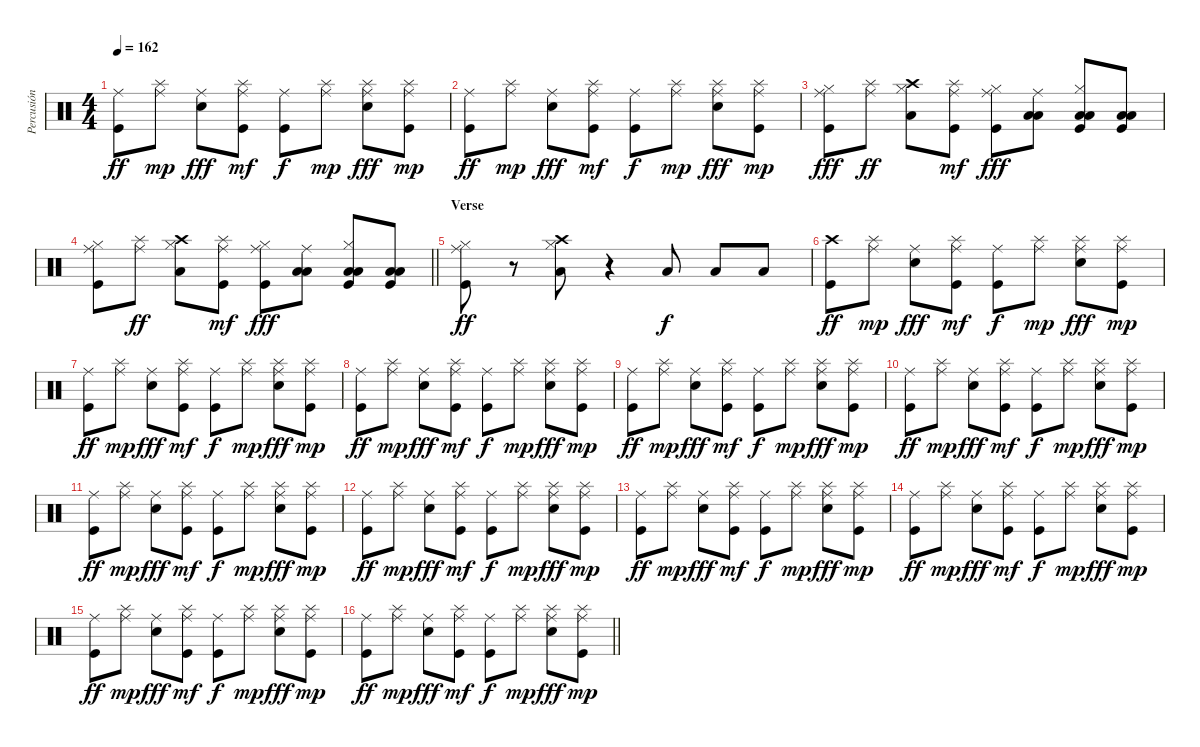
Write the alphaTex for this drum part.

\track ("Percusión" "Percusión") {instrument percussion}
\staff {score}
\articulation defaults
\ts (4 4)
\tempo 162
\clef neutral
\ks c
("Ride (middle)" "Kick (hit)").8{dy ff} ("Ride (middle)" "Splash (hit)").8{dy mp} ("Ride (middle)" "Snare (hit) 2").8{dy fff} ("Ride (middle)" "Splash (hit)" "Kick (hit)").8{dy mf} ("Ride (middle)" "Kick (hit)").8{dy f} ("Ride (middle)" "Splash (hit)").8{dy mp} ("Ride (middle)" "Splash (hit)" "Snare (hit) 2").8{dy fff} ("Ride (middle)" "Splash (hit)" "Kick (hit)").8{dy mp} |
("Ride (middle)" "Kick (hit)").8{dy ff} ("Ride (middle)" "Splash (hit)").8{dy mp} ("Ride (middle)" "Snare (hit) 2").8{dy fff} ("Ride (middle)" "Splash (hit)" "Kick (hit)").8{dy mf} ("Ride (middle)" "Kick (hit)").8{dy f} ("Ride (middle)" "Splash (hit)").8{dy mp} ("Ride (middle)" "Splash (hit)" "Snare (hit) 2").8{dy fff} ("Ride (middle)" "Splash (hit)" "Kick (hit)").8{dy mp} |
("Kick (hit)" "Hi-Hat (closed)" "Ride (middle)").8{dy fff} ("Splash (hit)" "Ride (middle)").8{dy ff} ("Hi-Hat (closed)" "Crash high (hit)" "Low Tom (hit)").8 ("Kick (hit)" "Splash (hit)" "Ride (middle)").8{dy mf} ("Kick (hit)" "Hi-Hat (closed)" "Ride (middle)").8{dy fff} ("Low Tom (hit)" "Low Tom (hit)" "Ride (middle)").8 ("Low Tom (hit)" "Kick (hit)" "Hi-Hat (closed)" "Low Tom (hit)").8 ("Low Tom (hit)" "Kick (hit)" "Low Tom (hit)").8 |
\barLineRight lightlight
("Kick (hit)" "Hi-Hat (closed)" "Ride (middle)").8 ("Splash (hit)" "Ride (middle)").8{dy ff} ("Hi-Hat (closed)" "Crash high (hit)" "Low Tom (hit)").8 ("Kick (hit)" "Splash (hit)" "Ride (middle)").8{dy mf} ("Kick (hit)" "Hi-Hat (closed)" "Ride (middle)").8{dy fff} ("Low Tom (hit)" "Low Tom (hit)" "Ride (middle)").8 ("Low Tom (hit)" "Kick (hit)" "Hi-Hat (closed)" "Low Tom (hit)").8 ("Low Tom (hit)" "Kick (hit)" "Low Tom (hit)").8 |
\section ("" "Verse")
("Hi-Hat (closed)" "Ride (middle)" "Kick (hit)").8{dy ff} r.8 ("Hi-Hat (closed)" "Crash high (hit)" "Low Tom (hit)").8 r.4 "Low Tom (hit)".8{dy f} "Low Tom (hit)".8 "Low Tom (hit)".8 |
("Crash high (hit)" "Kick (hit)").8{dy ff} ("Ride (middle)" "Splash (hit)").8{dy mp} ("Ride (middle)" "Snare (hit) 2").8{dy fff} ("Ride (middle)" "Splash (hit)" "Kick (hit)").8{dy mf} ("Ride (middle)" "Kick (hit)").8{dy f} ("Ride (middle)" "Splash (hit)").8{dy mp} ("Ride (middle)" "Splash (hit)" "Snare (hit) 2").8{dy fff} ("Ride (middle)" "Splash (hit)" "Kick (hit)").8{dy mp} |
("Ride (middle)" "Kick (hit)").8{dy ff} ("Ride (middle)" "Splash (hit)").8{dy mp} ("Ride (middle)" "Snare (hit) 2").8{dy fff} ("Ride (middle)" "Splash (hit)" "Kick (hit)").8{dy mf} ("Ride (middle)" "Kick (hit)").8{dy f} ("Ride (middle)" "Splash (hit)").8{dy mp} ("Ride (middle)" "Splash (hit)" "Snare (hit) 2").8{dy fff} ("Ride (middle)" "Splash (hit)" "Kick (hit)").8{dy mp} |
("Ride (middle)" "Kick (hit)").8{dy ff} ("Ride (middle)" "Splash (hit)").8{dy mp} ("Ride (middle)" "Snare (hit) 2").8{dy fff} ("Ride (middle)" "Splash (hit)" "Kick (hit)").8{dy mf} ("Ride (middle)" "Kick (hit)").8{dy f} ("Ride (middle)" "Splash (hit)").8{dy mp} ("Ride (middle)" "Splash (hit)" "Snare (hit) 2").8{dy fff} ("Ride (middle)" "Splash (hit)" "Kick (hit)").8{dy mp} |
("Ride (middle)" "Kick (hit)").8{dy ff} ("Ride (middle)" "Splash (hit)").8{dy mp} ("Ride (middle)" "Snare (hit) 2").8{dy fff} ("Ride (middle)" "Splash (hit)" "Kick (hit)").8{dy mf} ("Ride (middle)" "Kick (hit)").8{dy f} ("Ride (middle)" "Splash (hit)").8{dy mp} ("Ride (middle)" "Splash (hit)" "Snare (hit) 2").8{dy fff} ("Ride (middle)" "Splash (hit)" "Kick (hit)").8{dy mp} |
("Ride (middle)" "Kick (hit)").8{dy ff} ("Ride (middle)" "Splash (hit)").8{dy mp} ("Ride (middle)" "Snare (hit) 2").8{dy fff} ("Ride (middle)" "Splash (hit)" "Kick (hit)").8{dy mf} ("Ride (middle)" "Kick (hit)").8{dy f} ("Ride (middle)" "Splash (hit)").8{dy mp} ("Ride (middle)" "Splash (hit)" "Snare (hit) 2").8{dy fff} ("Ride (middle)" "Splash (hit)" "Kick (hit)").8{dy mp} |
("Ride (middle)" "Kick (hit)").8{dy ff} ("Ride (middle)" "Splash (hit)").8{dy mp} ("Ride (middle)" "Snare (hit) 2").8{dy fff} ("Ride (middle)" "Splash (hit)" "Kick (hit)").8{dy mf} ("Ride (middle)" "Kick (hit)").8{dy f} ("Ride (middle)" "Splash (hit)").8{dy mp} ("Ride (middle)" "Splash (hit)" "Snare (hit) 2").8{dy fff} ("Ride (middle)" "Splash (hit)" "Kick (hit)").8{dy mp} |
("Ride (middle)" "Kick (hit)").8{dy ff} ("Ride (middle)" "Splash (hit)").8{dy mp} ("Ride (middle)" "Snare (hit) 2").8{dy fff} ("Ride (middle)" "Splash (hit)" "Kick (hit)").8{dy mf} ("Ride (middle)" "Kick (hit)").8{dy f} ("Ride (middle)" "Splash (hit)").8{dy mp} ("Ride (middle)" "Splash (hit)" "Snare (hit) 2").8{dy fff} ("Ride (middle)" "Splash (hit)" "Kick (hit)").8{dy mp} |
("Ride (middle)" "Kick (hit)").8{dy ff} ("Ride (middle)" "Splash (hit)").8{dy mp} ("Ride (middle)" "Snare (hit) 2").8{dy fff} ("Ride (middle)" "Splash (hit)" "Kick (hit)").8{dy mf} ("Ride (middle)" "Kick (hit)").8{dy f} ("Ride (middle)" "Splash (hit)").8{dy mp} ("Ride (middle)" "Splash (hit)" "Snare (hit) 2").8{dy fff} ("Ride (middle)" "Splash (hit)" "Kick (hit)").8{dy mp} |
("Ride (middle)" "Kick (hit)").8{dy ff} ("Ride (middle)" "Splash (hit)").8{dy mp} ("Ride (middle)" "Snare (hit) 2").8{dy fff} ("Ride (middle)" "Splash (hit)" "Kick (hit)").8{dy mf} ("Ride (middle)" "Kick (hit)").8{dy f} ("Ride (middle)" "Splash (hit)").8{dy mp} ("Ride (middle)" "Splash (hit)" "Snare (hit) 2").8{dy fff} ("Ride (middle)" "Splash (hit)" "Kick (hit)").8{dy mp} |
("Ride (middle)" "Kick (hit)").8{dy ff} ("Ride (middle)" "Splash (hit)").8{dy mp} ("Ride (middle)" "Snare (hit) 2").8{dy fff} ("Ride (middle)" "Splash (hit)" "Kick (hit)").8{dy mf} ("Ride (middle)" "Kick (hit)").8{dy f} ("Ride (middle)" "Splash (hit)").8{dy mp} ("Ride (middle)" "Splash (hit)" "Snare (hit) 2").8{dy fff} ("Ride (middle)" "Splash (hit)" "Kick (hit)").8{dy mp} |
\barLineRight lightlight
("Ride (middle)" "Kick (hit)").8{dy ff} ("Ride (middle)" "Splash (hit)").8{dy mp} ("Ride (middle)" "Snare (hit) 2").8{dy fff} ("Ride (middle)" "Splash (hit)" "Kick (hit)").8{dy mf} ("Ride (middle)" "Kick (hit)").8{dy f} ("Ride (middle)" "Splash (hit)").8{dy mp} ("Ride (middle)" "Splash (hit)" "Snare (hit) 2").8{dy fff} ("Ride (middle)" "Splash (hit)" "Kick (hit)").8{dy mp}
